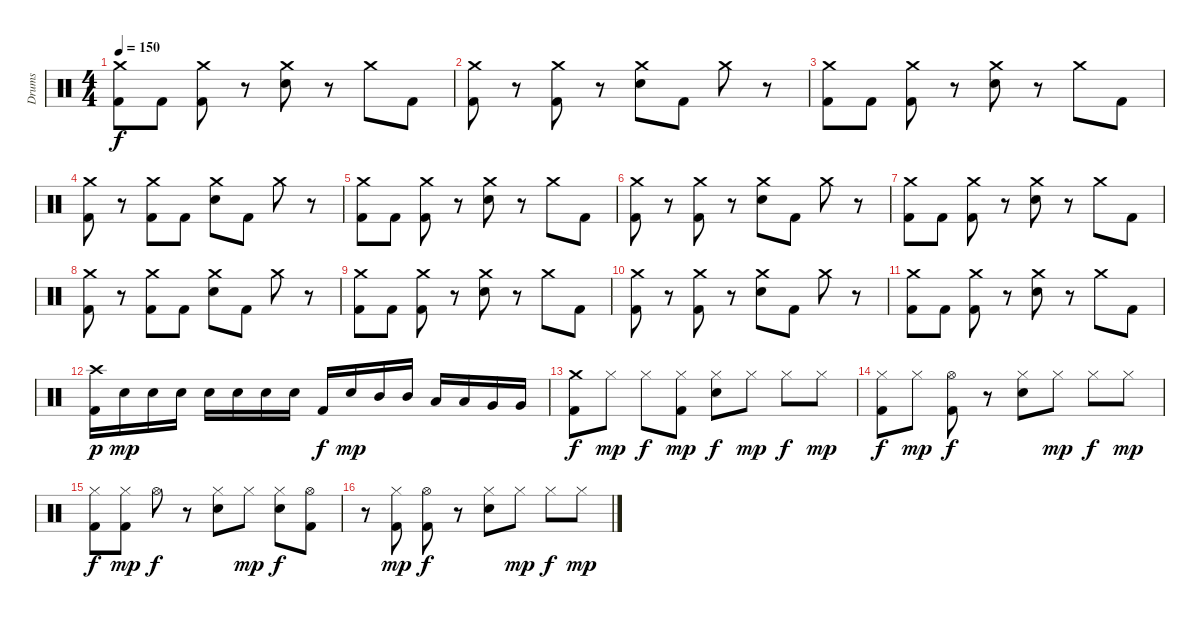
\track ("Drums" "Drums") {instrument percussion}
\staff {score}
\articulation defaults
\ts (4 4)
\tempo 150
\clef neutral
\ks c
("Crash medium (hit)" "Kick (hit) 2").8{dy f} "Kick (hit) 2".8 ("Crash medium (hit)" "Kick (hit) 2").8 r.8 ("Crash medium (hit)" "Electric Snare (hit)").8 r.8 "Crash medium (hit)".8 "Kick (hit) 2".8 |
("Crash medium (hit)" "Kick (hit) 2").8 r.8 ("Crash medium (hit)" "Kick (hit) 2").8 r.8 ("Crash medium (hit)" "Electric Snare (hit)").8 "Kick (hit) 2".8 "Crash medium (hit)".8 r.8 |
("Crash medium (hit)" "Kick (hit) 2").8 "Kick (hit) 2".8 ("Crash medium (hit)" "Kick (hit) 2").8 r.8 ("Crash medium (hit)" "Electric Snare (hit)").8 r.8 "Crash medium (hit)".8 "Kick (hit) 2".8 |
("Crash medium (hit)" "Kick (hit) 2").8 r.8 ("Crash medium (hit)" "Kick (hit) 2").8 "Kick (hit) 2".8 ("Crash medium (hit)" "Electric Snare (hit)").8 "Kick (hit) 2".8 "Crash medium (hit)".8 r.8 |
("Crash medium (hit)" "Kick (hit) 2").8 "Kick (hit) 2".8 ("Crash medium (hit)" "Kick (hit) 2").8 r.8 ("Crash medium (hit)" "Electric Snare (hit)").8 r.8 "Crash medium (hit)".8 "Kick (hit) 2".8 |
("Crash medium (hit)" "Kick (hit) 2").8 r.8 ("Crash medium (hit)" "Kick (hit) 2").8 r.8 ("Crash medium (hit)" "Electric Snare (hit)").8 "Kick (hit) 2".8 "Crash medium (hit)".8 r.8 |
("Crash medium (hit)" "Kick (hit) 2").8 "Kick (hit) 2".8 ("Crash medium (hit)" "Kick (hit) 2").8 r.8 ("Crash medium (hit)" "Electric Snare (hit)").8 r.8 "Crash medium (hit)".8 "Kick (hit) 2".8 |
("Crash medium (hit)" "Kick (hit) 2").8 r.8 ("Crash medium (hit)" "Kick (hit) 2").8 "Kick (hit) 2".8 ("Crash medium (hit)" "Electric Snare (hit)").8 "Kick (hit) 2".8 "Crash medium (hit)".8 r.8 |
("Crash medium (hit)" "Kick (hit) 2").8 "Kick (hit) 2".8 ("Crash medium (hit)" "Kick (hit) 2").8 r.8 ("Crash medium (hit)" "Electric Snare (hit)").8 r.8 "Crash medium (hit)".8 "Kick (hit) 2".8 |
("Crash medium (hit)" "Kick (hit) 2").8 r.8 ("Crash medium (hit)" "Kick (hit) 2").8 r.8 ("Crash medium (hit)" "Electric Snare (hit)").8 "Kick (hit) 2".8 "Crash medium (hit)".8 r.8 |
("Crash medium (hit)" "Kick (hit) 2").8 "Kick (hit) 2".8 ("Crash medium (hit)" "Kick (hit) 2").8 r.8 ("Crash medium (hit)" "Electric Snare (hit)").8 r.8 "Crash medium (hit)".8 "Kick (hit) 2".8 |
("Crash high (hit)" "Kick (hit) 2").16{dy p} "Electric Snare (hit)".16{dy mp} "Electric Snare (hit)".16 "Electric Snare (hit)".16 "Electric Snare (hit)".16 "Electric Snare (hit)".16 "Electric Snare (hit)".16 "Electric Snare (hit)".16 "Kick (hit) 2".16{dy f} "Electric Snare (hit)".16{dy mp} "Mid Tom (hit)".16 "Mid Tom (hit)".16 "Low Tom (hit)".16 "Low Tom (hit)".16 "Very Low Tom (hit)".16 "Very Low Tom (hit)".16 |
("Crash medium (hit)" "Kick (hit) 2").8{dy f} "Hi-Hat (closed)".8{dy mp} "Hi-Hat (closed)".8{dy f} ("Hi-Hat (closed)" "Kick (hit) 2").8{dy mp} ("Hi-Hat (closed)" "Electric Snare (hit)").8{dy f} "Hi-Hat (closed)".8{dy mp} "Hi-Hat (closed)".8{dy f} "Hi-Hat (closed)".8{dy mp} |
("Hi-Hat (closed)" "Kick (hit) 2").8{dy f} "Hi-Hat (closed)".8{dy mp} ("Hi-Hat (open)" "Kick (hit) 2").8{dy f} r.8 ("Hi-Hat (closed)" "Electric Snare (hit)").8 "Hi-Hat (closed)".8{dy mp} "Hi-Hat (closed)".8{dy f} "Hi-Hat (closed)".8{dy mp} |
("Hi-Hat (closed)" "Kick (hit) 2").8{dy f} ("Hi-Hat (closed)" "Kick (hit) 2").8{dy mp} "Hi-Hat (open)".8{dy f} r.8 ("Hi-Hat (closed)" "Electric Snare (hit)").8 "Hi-Hat (closed)".8{dy mp} ("Hi-Hat (closed)" "Electric Snare (hit)").8{dy f} ("Hi-Hat (open)" "Kick (hit) 2").8 |
r.8 ("Hi-Hat (closed)" "Kick (hit) 2").8{dy mp} ("Hi-Hat (open)" "Kick (hit) 2").8{dy f} r.8 ("Hi-Hat (closed)" "Electric Snare (hit)").8 "Hi-Hat (closed)".8{dy mp} "Hi-Hat (closed)".8{dy f} "Hi-Hat (closed)".8{dy mp}
